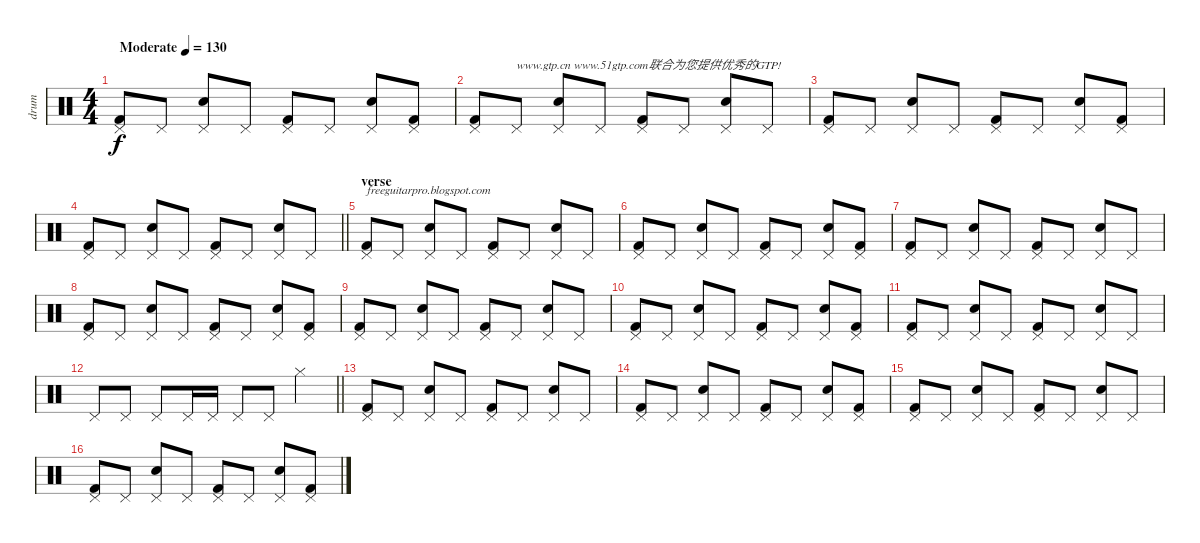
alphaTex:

\track ("drum" "drum") {instrument percussion}
\staff {score}
\articulation defaults
\ts (4 4)
\tempo (130 "Moderate")
\clef neutral
\ks c
("Pedal Hi-Hat (hit)" "Kick (hit) 2").8{dy f} "Pedal Hi-Hat (hit)".8 ("Pedal Hi-Hat (hit)" "Snare (hit) 2").8 "Pedal Hi-Hat (hit)".8 ("Pedal Hi-Hat (hit)" "Kick (hit) 2").8 "Pedal Hi-Hat (hit)".8 ("Pedal Hi-Hat (hit)" "Snare (hit) 2").8 ("Pedal Hi-Hat (hit)" "Kick (hit) 2").8 |
("Pedal Hi-Hat (hit)" "Kick (hit) 2").8 "Pedal Hi-Hat (hit)".8{txt "www.gtp.cn www.51gtp.com联合为您提供优秀的GTP!"} ("Pedal Hi-Hat (hit)" "Snare (hit) 2").8 "Pedal Hi-Hat (hit)".8 ("Pedal Hi-Hat (hit)" "Kick (hit) 2").8 "Pedal Hi-Hat (hit)".8 ("Pedal Hi-Hat (hit)" "Snare (hit) 2").8 "Pedal Hi-Hat (hit)".8 |
("Pedal Hi-Hat (hit)" "Kick (hit) 2").8 "Pedal Hi-Hat (hit)".8 ("Pedal Hi-Hat (hit)" "Snare (hit) 2").8 "Pedal Hi-Hat (hit)".8 ("Pedal Hi-Hat (hit)" "Kick (hit) 2").8 "Pedal Hi-Hat (hit)".8 ("Pedal Hi-Hat (hit)" "Snare (hit) 2").8 ("Pedal Hi-Hat (hit)" "Kick (hit) 2").8 |
\barLineRight lightlight
("Pedal Hi-Hat (hit)" "Kick (hit) 2").8 "Pedal Hi-Hat (hit)".8 ("Pedal Hi-Hat (hit)" "Snare (hit) 2").8 "Pedal Hi-Hat (hit)".8 ("Pedal Hi-Hat (hit)" "Kick (hit) 2").8 "Pedal Hi-Hat (hit)".8 ("Pedal Hi-Hat (hit)" "Snare (hit) 2").8 "Pedal Hi-Hat (hit)".8 |
\section ("" "verse")
("Pedal Hi-Hat (hit)" "Kick (hit) 2").8{txt "freeguitarpro.blogspot.com"} "Pedal Hi-Hat (hit)".8 ("Pedal Hi-Hat (hit)" "Snare (hit) 2").8 "Pedal Hi-Hat (hit)".8 ("Pedal Hi-Hat (hit)" "Kick (hit) 2").8 "Pedal Hi-Hat (hit)".8 ("Pedal Hi-Hat (hit)" "Snare (hit) 2").8 "Pedal Hi-Hat (hit)".8 |
("Pedal Hi-Hat (hit)" "Kick (hit) 2").8 "Pedal Hi-Hat (hit)".8 ("Pedal Hi-Hat (hit)" "Snare (hit) 2").8 "Pedal Hi-Hat (hit)".8 ("Pedal Hi-Hat (hit)" "Kick (hit) 2").8 "Pedal Hi-Hat (hit)".8 ("Pedal Hi-Hat (hit)" "Snare (hit) 2").8 ("Pedal Hi-Hat (hit)" "Kick (hit) 2").8 |
("Pedal Hi-Hat (hit)" "Kick (hit) 2").8 "Pedal Hi-Hat (hit)".8 ("Pedal Hi-Hat (hit)" "Snare (hit) 2").8 "Pedal Hi-Hat (hit)".8 ("Pedal Hi-Hat (hit)" "Kick (hit) 2").8 "Pedal Hi-Hat (hit)".8 ("Pedal Hi-Hat (hit)" "Snare (hit) 2").8 "Pedal Hi-Hat (hit)".8 |
("Pedal Hi-Hat (hit)" "Kick (hit) 2").8 "Pedal Hi-Hat (hit)".8 ("Pedal Hi-Hat (hit)" "Snare (hit) 2").8 "Pedal Hi-Hat (hit)".8 ("Pedal Hi-Hat (hit)" "Kick (hit) 2").8 "Pedal Hi-Hat (hit)".8 ("Pedal Hi-Hat (hit)" "Snare (hit) 2").8 ("Pedal Hi-Hat (hit)" "Kick (hit) 2").8 |
("Pedal Hi-Hat (hit)" "Kick (hit) 2").8 "Pedal Hi-Hat (hit)".8 ("Pedal Hi-Hat (hit)" "Snare (hit) 2").8 "Pedal Hi-Hat (hit)".8 ("Pedal Hi-Hat (hit)" "Kick (hit) 2").8 "Pedal Hi-Hat (hit)".8 ("Pedal Hi-Hat (hit)" "Snare (hit) 2").8 "Pedal Hi-Hat (hit)".8 |
("Pedal Hi-Hat (hit)" "Kick (hit) 2").8 "Pedal Hi-Hat (hit)".8 ("Pedal Hi-Hat (hit)" "Snare (hit) 2").8 "Pedal Hi-Hat (hit)".8 ("Pedal Hi-Hat (hit)" "Kick (hit) 2").8 "Pedal Hi-Hat (hit)".8 ("Pedal Hi-Hat (hit)" "Snare (hit) 2").8 ("Pedal Hi-Hat (hit)" "Kick (hit) 2").8 |
("Pedal Hi-Hat (hit)" "Kick (hit) 2").8 "Pedal Hi-Hat (hit)".8 ("Pedal Hi-Hat (hit)" "Snare (hit) 2").8 "Pedal Hi-Hat (hit)".8 ("Pedal Hi-Hat (hit)" "Kick (hit) 2").8 "Pedal Hi-Hat (hit)".8 ("Pedal Hi-Hat (hit)" "Snare (hit) 2").8 "Pedal Hi-Hat (hit)".8 |
\barLineRight lightlight "Pedal Hi-Hat (hit)".8 "Pedal Hi-Hat (hit)".8 "Pedal Hi-Hat (hit)".8 "Pedal Hi-Hat (hit)".16 "Pedal Hi-Hat (hit)".16 "Pedal Hi-Hat (hit)".8 "Pedal Hi-Hat (hit)".8 "Hi-Hat (closed)".4
|
("Pedal Hi-Hat (hit)" "Kick (hit) 2").8 "Pedal Hi-Hat (hit)".8 ("Pedal Hi-Hat (hit)" "Snare (hit) 2").8 "Pedal Hi-Hat (hit)".8 ("Pedal Hi-Hat (hit)" "Kick (hit) 2").8 "Pedal Hi-Hat (hit)".8 ("Pedal Hi-Hat (hit)" "Snare (hit) 2").8 "Pedal Hi-Hat (hit)".8 |
("Pedal Hi-Hat (hit)" "Kick (hit) 2").8 "Pedal Hi-Hat (hit)".8 ("Pedal Hi-Hat (hit)" "Snare (hit) 2").8 "Pedal Hi-Hat (hit)".8 ("Pedal Hi-Hat (hit)" "Kick (hit) 2").8 "Pedal Hi-Hat (hit)".8 ("Pedal Hi-Hat (hit)" "Snare (hit) 2").8 ("Pedal Hi-Hat (hit)" "Kick (hit) 2").8 |
("Pedal Hi-Hat (hit)" "Kick (hit) 2").8 "Pedal Hi-Hat (hit)".8 ("Pedal Hi-Hat (hit)" "Snare (hit) 2").8 "Pedal Hi-Hat (hit)".8 ("Pedal Hi-Hat (hit)" "Kick (hit) 2").8 "Pedal Hi-Hat (hit)".8 ("Pedal Hi-Hat (hit)" "Snare (hit) 2").8 "Pedal Hi-Hat (hit)".8 |
("Pedal Hi-Hat (hit)" "Kick (hit) 2").8 "Pedal Hi-Hat (hit)".8 ("Pedal Hi-Hat (hit)" "Snare (hit) 2").8 "Pedal Hi-Hat (hit)".8 ("Pedal Hi-Hat (hit)" "Kick (hit) 2").8 "Pedal Hi-Hat (hit)".8 ("Pedal Hi-Hat (hit)" "Snare (hit) 2").8 ("Pedal Hi-Hat (hit)" "Kick (hit) 2").8
